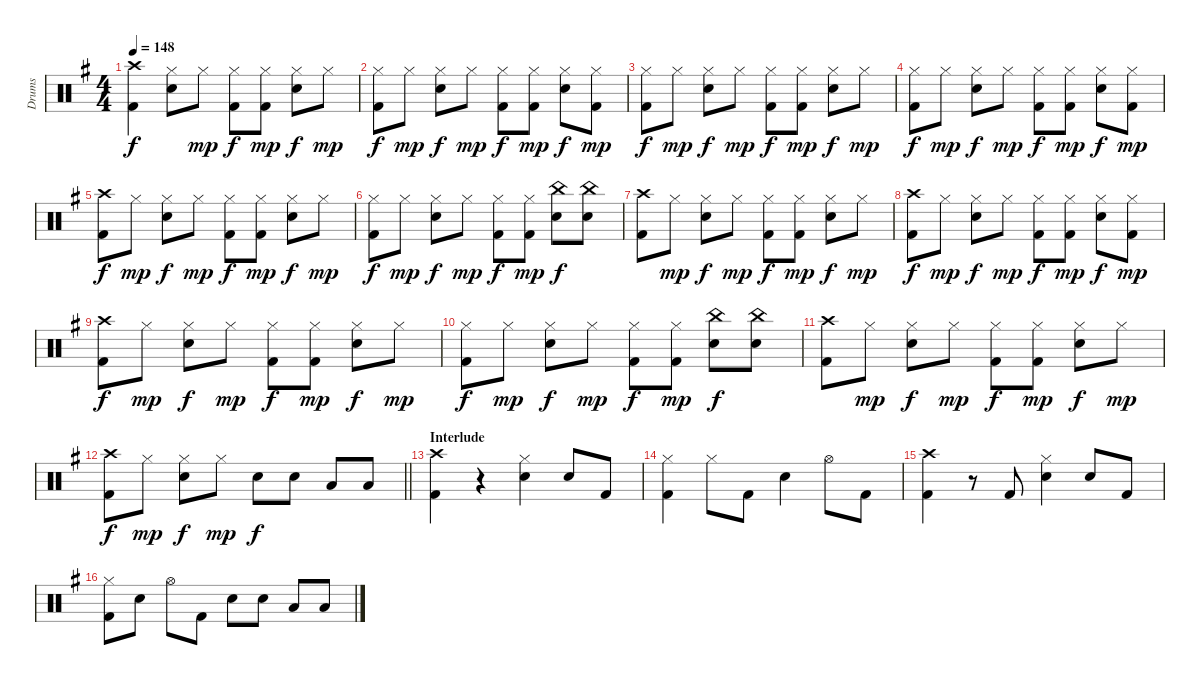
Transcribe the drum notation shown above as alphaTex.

\track ("Drums" "Drums") {instrument percussion}
\staff {score}
\articulation defaults
\ts (4 4)
\tempo 148
\clef neutral
\ks g
("Crash high (hit)" "Kick (hit) 2").4{dy f} ("Hi-Hat (closed)" "Electric Snare (hit)").8 "Hi-Hat (closed)".8{dy mp} ("Hi-Hat (closed)" "Kick (hit) 2").8{dy f} ("Hi-Hat (closed)" "Kick (hit) 2").8{dy mp} ("Hi-Hat (closed)" "Electric Snare (hit)").8{dy f} "Hi-Hat (closed)".8{dy mp} |
("Hi-Hat (closed)" "Kick (hit) 2").8{dy f} "Hi-Hat (closed)".8{dy mp} ("Hi-Hat (closed)" "Electric Snare (hit)").8{dy f} "Hi-Hat (closed)".8{dy mp} ("Hi-Hat (closed)" "Kick (hit) 2").8{dy f} ("Hi-Hat (closed)" "Kick (hit) 2").8{dy mp} ("Hi-Hat (closed)" "Electric Snare (hit)").8{dy f} ("Hi-Hat (closed)" "Kick (hit) 2").8{dy mp} |
("Hi-Hat (closed)" "Kick (hit) 2").8{dy f} "Hi-Hat (closed)".8{dy mp} ("Hi-Hat (closed)" "Electric Snare (hit)").8{dy f} "Hi-Hat (closed)".8{dy mp} ("Hi-Hat (closed)" "Kick (hit) 2").8{dy f} ("Hi-Hat (closed)" "Kick (hit) 2").8{dy mp} ("Hi-Hat (closed)" "Electric Snare (hit)").8{dy f} "Hi-Hat (closed)".8{dy mp} |
("Hi-Hat (closed)" "Kick (hit) 2").8{dy f} "Hi-Hat (closed)".8{dy mp} ("Hi-Hat (closed)" "Electric Snare (hit)").8{dy f} "Hi-Hat (closed)".8{dy mp} ("Hi-Hat (closed)" "Kick (hit) 2").8{dy f} ("Hi-Hat (closed)" "Kick (hit) 2").8{dy mp} ("Hi-Hat (closed)" "Electric Snare (hit)").8{dy f} ("Hi-Hat (closed)" "Kick (hit) 2").8{dy mp} |
("Crash high (hit)" "Kick (hit) 2").8{dy f} "Hi-Hat (closed)".8{dy mp} ("Hi-Hat (closed)" "Electric Snare (hit)").8{dy f} "Hi-Hat (closed)".8{dy mp} ("Hi-Hat (closed)" "Kick (hit) 2").8{dy f} ("Hi-Hat (closed)" "Kick (hit) 2").8{dy mp} ("Hi-Hat (closed)" "Electric Snare (hit)").8{dy f} "Hi-Hat (closed)".8{dy mp} |
("Hi-Hat (closed)" "Kick (hit) 2").8{dy f} "Hi-Hat (closed)".8{dy mp} ("Hi-Hat (closed)" "Electric Snare (hit)").8{dy f} "Hi-Hat (closed)".8{dy mp} ("Hi-Hat (closed)" "Kick (hit) 2").8{dy f} ("Hi-Hat (closed)" "Kick (hit) 2").8{dy mp} ("China (hit)" "Electric Snare (hit)").8{dy f} ("China (hit)" "Electric Snare (hit)").8 |
("Crash high (hit)" "Kick (hit) 2").8 "Hi-Hat (closed)".8{dy mp} ("Hi-Hat (closed)" "Electric Snare (hit)").8{dy f} "Hi-Hat (closed)".8{dy mp} ("Hi-Hat (closed)" "Kick (hit) 2").8{dy f} ("Hi-Hat (closed)" "Kick (hit) 2").8{dy mp} ("Hi-Hat (closed)" "Electric Snare (hit)").8{dy f} "Hi-Hat (closed)".8{dy mp} |
("Crash high (hit)" "Kick (hit) 2").8{dy f} "Hi-Hat (closed)".8{dy mp} ("Hi-Hat (closed)" "Electric Snare (hit)").8{dy f} "Hi-Hat (closed)".8{dy mp} ("Hi-Hat (closed)" "Kick (hit) 2").8{dy f} ("Hi-Hat (closed)" "Kick (hit) 2").8{dy mp} ("Hi-Hat (closed)" "Electric Snare (hit)").8{dy f} ("Hi-Hat (closed)" "Kick (hit) 2").8{dy mp} |
("Crash high (hit)" "Kick (hit) 2").8{dy f} "Hi-Hat (closed)".8{dy mp} ("Hi-Hat (closed)" "Electric Snare (hit)").8{dy f} "Hi-Hat (closed)".8{dy mp} ("Hi-Hat (closed)" "Kick (hit) 2").8{dy f} ("Hi-Hat (closed)" "Kick (hit) 2").8{dy mp} ("Hi-Hat (closed)" "Electric Snare (hit)").8{dy f} "Hi-Hat (closed)".8{dy mp} |
("Hi-Hat (closed)" "Kick (hit) 2").8{dy f} "Hi-Hat (closed)".8{dy mp} ("Hi-Hat (closed)" "Electric Snare (hit)").8{dy f} "Hi-Hat (closed)".8{dy mp} ("Hi-Hat (closed)" "Kick (hit) 2").8{dy f} ("Hi-Hat (closed)" "Kick (hit) 2").8{dy mp} ("China (hit)" "Electric Snare (hit)").8{dy f} ("China (hit)" "Electric Snare (hit)").8 |
("Crash high (hit)" "Kick (hit) 2").8 "Hi-Hat (closed)".8{dy mp} ("Hi-Hat (closed)" "Electric Snare (hit)").8{dy f} "Hi-Hat (closed)".8{dy mp} ("Hi-Hat (closed)" "Kick (hit) 2").8{dy f} ("Hi-Hat (closed)" "Kick (hit) 2").8{dy mp} ("Hi-Hat (closed)" "Electric Snare (hit)").8{dy f} "Hi-Hat (closed)".8{dy mp} |
\barLineRight lightlight
("Crash high (hit)" "Kick (hit) 2").8{dy f} "Hi-Hat (closed)".8{dy mp} ("Hi-Hat (closed)" "Electric Snare (hit)").8{dy f} "Hi-Hat (closed)".8{dy mp} "Electric Snare (hit)".8{dy f} "Electric Snare (hit)".8 "Low Tom (hit)".8 "Low Tom (hit)".8 |
\section ("" "Interlude")
("Crash high (hit)" "Kick (hit) 2").4 r.4 ("Hi-Hat (closed)" "Electric Snare (hit)").4 "Electric Snare (hit)".8 "Kick (hit) 2".8 |
("Hi-Hat (closed)" "Kick (hit) 2").4 "Hi-Hat (closed)".8 "Kick (hit) 2".8 "Electric Snare (hit)".4 "Hi-Hat (open)".8 "Kick (hit) 2".8 |
("Crash high (hit)" "Kick (hit) 2").4 r.8 "Kick (hit) 2".8 ("Hi-Hat (closed)" "Electric Snare (hit)").4 "Electric Snare (hit)".8 "Kick (hit) 2".8 |
("Hi-Hat (closed)" "Kick (hit) 2").8 "Electric Snare (hit)".8 "Hi-Hat (open)".8 "Kick (hit) 2".8 "Electric Snare (hit)".8 "Electric Snare (hit)".8 "Low Tom (hit)".8 "Low Tom (hit)".8
